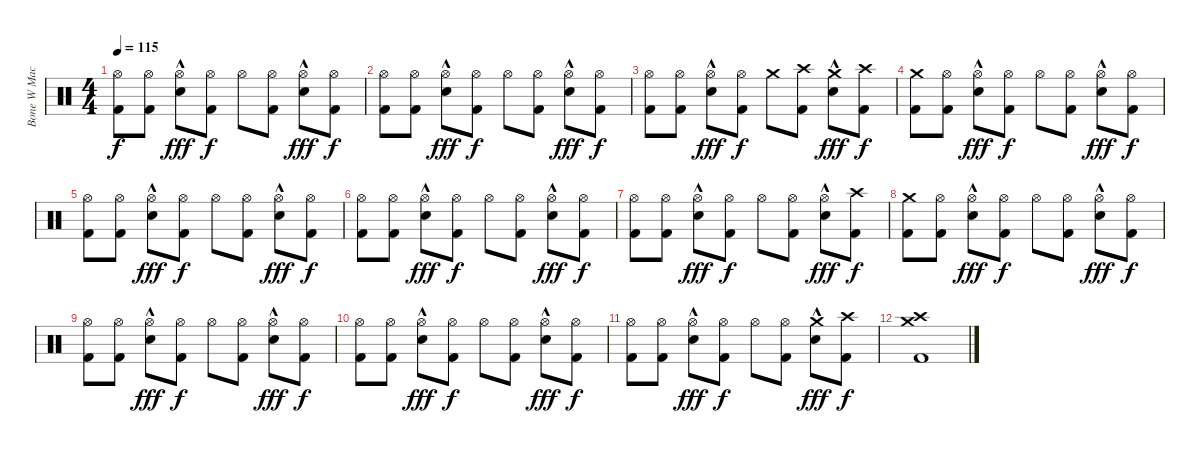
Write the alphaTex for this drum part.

\track ("Bone W Machine" "Bone W Mac") {instrument percussion}
\staff {score}
\articulation defaults
\ts (4 4)
\tempo 115
\clef neutral
\ks c
("Hi-Hat (open)" "Kick (hit) 2").8{dy f} ("Hi-Hat (open)" "Kick (hit) 2").8 ("Hi-Hat (open)" "Electric Snare (hit)"{hac}).8{dy fff} ("Hi-Hat (open)" "Kick (hit) 2").8{dy f} "Hi-Hat (open)".8 ("Hi-Hat (open)" "Kick (hit) 2").8 ("Hi-Hat (open)" "Electric Snare (hit)"{hac}).8{dy fff} ("Hi-Hat (open)" "Kick (hit) 2").8{dy f} |
("Hi-Hat (open)" "Kick (hit) 2").8 ("Hi-Hat (open)" "Kick (hit) 2").8 ("Hi-Hat (open)" "Electric Snare (hit)"{hac}).8{dy fff} ("Hi-Hat (open)" "Kick (hit) 2").8{dy f} "Hi-Hat (open)".8 ("Hi-Hat (open)" "Kick (hit) 2").8 ("Hi-Hat (open)" "Electric Snare (hit)"{hac}).8{dy fff} ("Hi-Hat (open)" "Kick (hit) 2").8{dy f} |
("Hi-Hat (open)" "Kick (hit) 2").8 ("Hi-Hat (open)" "Kick (hit) 2").8 ("Hi-Hat (open)" "Electric Snare (hit)"{hac}).8{dy fff} ("Hi-Hat (open)" "Kick (hit) 2").8{dy f} "Crash medium (hit)".8 ("Crash high (hit)" "Kick (hit) 2").8 ("Crash medium (hit)" "Electric Snare (hit)"{hac}).8{dy fff} ("Crash high (hit)" "Kick (hit) 2").8{dy f} |
("Crash medium (hit)" "Kick (hit) 2").8 ("Hi-Hat (open)" "Kick (hit) 2").8 ("Hi-Hat (open)" "Electric Snare (hit)"{hac}).8{dy fff} ("Hi-Hat (open)" "Kick (hit) 2").8{dy f} "Hi-Hat (open)".8 ("Hi-Hat (open)" "Kick (hit) 2").8 ("Hi-Hat (open)" "Electric Snare (hit)"{hac}).8{dy fff} ("Hi-Hat (open)" "Kick (hit) 2").8{dy f} |
("Hi-Hat (open)" "Kick (hit) 2").8 ("Hi-Hat (open)" "Kick (hit) 2").8 ("Hi-Hat (open)" "Electric Snare (hit)"{hac}).8{dy fff} ("Hi-Hat (open)" "Kick (hit) 2").8{dy f} "Hi-Hat (open)".8 ("Hi-Hat (open)" "Kick (hit) 2").8 ("Hi-Hat (open)" "Electric Snare (hit)"{hac}).8{dy fff} ("Hi-Hat (open)" "Kick (hit) 2").8{dy f} |
("Hi-Hat (open)" "Kick (hit) 2").8 ("Hi-Hat (open)" "Kick (hit) 2").8 ("Hi-Hat (open)" "Electric Snare (hit)"{hac}).8{dy fff} ("Hi-Hat (open)" "Kick (hit) 2").8{dy f} "Hi-Hat (open)".8 ("Hi-Hat (open)" "Kick (hit) 2").8 ("Hi-Hat (open)" "Electric Snare (hit)"{hac}).8{dy fff} ("Hi-Hat (open)" "Kick (hit) 2").8{dy f} |
("Hi-Hat (open)" "Kick (hit) 2").8 ("Hi-Hat (open)" "Kick (hit) 2").8 ("Hi-Hat (open)" "Electric Snare (hit)"{hac}).8{dy fff} ("Hi-Hat (open)" "Kick (hit) 2").8{dy f} "Hi-Hat (open)".8 ("Hi-Hat (open)" "Kick (hit) 2").8 ("Hi-Hat (open)" "Electric Snare (hit)"{hac}).8{dy fff} ("Crash high (hit)" "Kick (hit) 2").8{dy f} |
("Crash medium (hit)" "Kick (hit) 2").8 ("Hi-Hat (open)" "Kick (hit) 2").8 ("Hi-Hat (open)" "Electric Snare (hit)"{hac}).8{dy fff} ("Hi-Hat (open)" "Kick (hit) 2").8{dy f} "Hi-Hat (open)".8 ("Hi-Hat (open)" "Kick (hit) 2").8 ("Hi-Hat (open)" "Electric Snare (hit)"{hac}).8{dy fff} ("Hi-Hat (open)" "Kick (hit) 2").8{dy f} |
("Hi-Hat (open)" "Kick (hit) 2").8 ("Hi-Hat (open)" "Kick (hit) 2").8 ("Hi-Hat (open)" "Electric Snare (hit)"{hac}).8{dy fff} ("Hi-Hat (open)" "Kick (hit) 2").8{dy f} "Hi-Hat (open)".8 ("Hi-Hat (open)" "Kick (hit) 2").8 ("Hi-Hat (open)" "Electric Snare (hit)"{hac}).8{dy fff} ("Hi-Hat (open)" "Kick (hit) 2").8{dy f} |
("Hi-Hat (open)" "Kick (hit) 2").8 ("Hi-Hat (open)" "Kick (hit) 2").8 ("Hi-Hat (open)" "Electric Snare (hit)"{hac}).8{dy fff} ("Hi-Hat (open)" "Kick (hit) 2").8{dy f} "Hi-Hat (open)".8 ("Hi-Hat (open)" "Kick (hit) 2").8 ("Hi-Hat (open)" "Electric Snare (hit)"{hac}).8{dy fff} ("Hi-Hat (open)" "Kick (hit) 2").8{dy f} |
("Hi-Hat (open)" "Kick (hit) 2").8 ("Hi-Hat (open)" "Kick (hit) 2").8 ("Hi-Hat (open)" "Electric Snare (hit)"{hac}).8{dy fff} ("Hi-Hat (open)" "Kick (hit) 2").8{dy f} "Hi-Hat (open)".8 ("Hi-Hat (open)" "Kick (hit) 2").8 ("Crash medium (hit)" "Electric Snare (hit)"{hac}).8{dy fff} ("Crash high (hit)" "Kick (hit) 2").8{dy f} |
("Crash high (hit)" "Crash medium (hit)" "Kick (hit) 2").1
